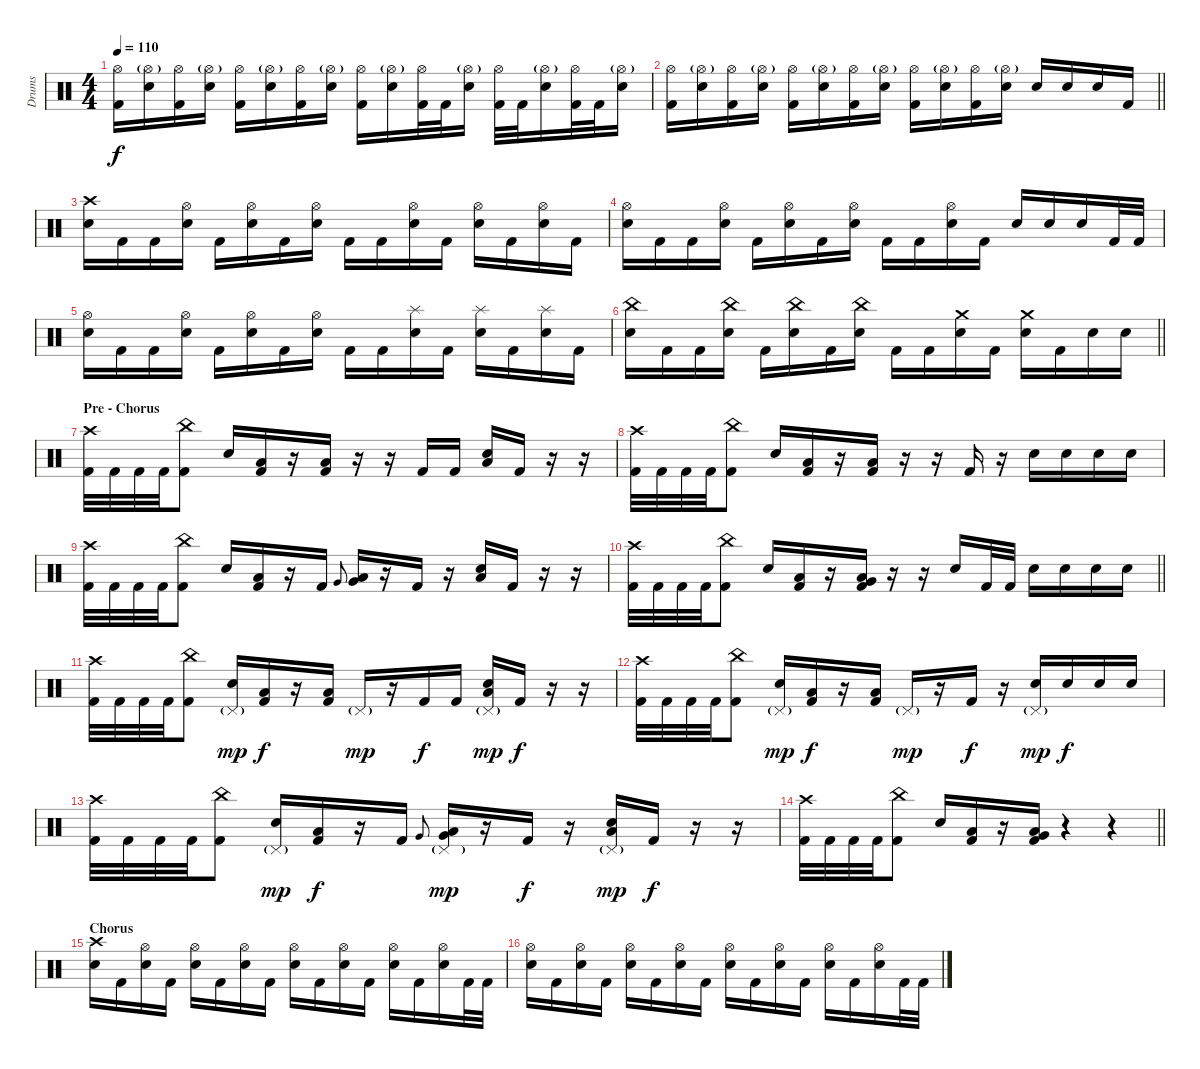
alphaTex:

\track ("Drums" "Drums") {instrument percussion}
\staff {score}
\articulation defaults
\ts (4 4)
\tempo 110
\clef neutral
\ks c
("Hi-Hat (open)" "Kick (hit) 2").16{dy f} ("Hi-Hat (open)"{g} "Electric Snare (hit)").16 ("Hi-Hat (open)" "Kick (hit) 2").16 ("Hi-Hat (open)"{g} "Electric Snare (hit)").16 ("Hi-Hat (open)" "Kick (hit) 2").16 ("Hi-Hat (open)"{g} "Electric Snare (hit)").16 ("Hi-Hat (open)" "Kick (hit) 2").16 ("Hi-Hat (open)"{g} "Electric Snare (hit)").16 ("Hi-Hat (open)" "Kick (hit) 2").16 ("Hi-Hat (open)"{g} "Electric Snare (hit)").16 ("Hi-Hat (open)" "Kick (hit) 2").32 "Kick (hit) 2".32 ("Hi-Hat (open)"{g} "Electric Snare (hit)").16 ("Hi-Hat (open)" "Kick (hit) 2").32 "Kick (hit) 2".32 ("Hi-Hat (open)"{g} "Electric Snare (hit)").16 ("Hi-Hat (open)" "Kick (hit) 2").32 "Kick (hit) 2".32 ("Hi-Hat (open)"{g} "Electric Snare (hit)").16 |
\barLineRight lightlight
("Hi-Hat (open)" "Kick (hit) 2").16 ("Hi-Hat (open)"{g} "Electric Snare (hit)").16 ("Hi-Hat (open)" "Kick (hit) 2").16 ("Hi-Hat (open)"{g} "Electric Snare (hit)").16 ("Hi-Hat (open)" "Kick (hit) 2").16 ("Hi-Hat (open)"{g} "Electric Snare (hit)").16 ("Hi-Hat (open)" "Kick (hit) 2").16 ("Hi-Hat (open)"{g} "Electric Snare (hit)").16 ("Hi-Hat (open)" "Kick (hit) 2").16 ("Hi-Hat (open)"{g} "Electric Snare (hit)").16 ("Hi-Hat (open)" "Kick (hit) 2").16 ("Hi-Hat (open)"{g} "Electric Snare (hit)").16 "Electric Snare (hit)".16 "Electric Snare (hit)".16 "Electric Snare (hit)".16 "Kick (hit) 2".16 |
("Crash high (hit)" "Electric Snare (hit)").16 "Kick (hit) 2".16 "Kick (hit) 2".16 ("Hi-Hat (open)" "Electric Snare (hit)").16 "Kick (hit) 2".16 ("Hi-Hat (open)" "Electric Snare (hit)").16 "Kick (hit) 2".16 ("Hi-Hat (open)" "Electric Snare (hit)").16 "Kick (hit) 2".16 "Kick (hit) 2".16 ("Hi-Hat (open)" "Electric Snare (hit)").16 "Kick (hit) 2".16 ("Hi-Hat (open)" "Electric Snare (hit)").16 "Kick (hit) 2".16 ("Hi-Hat (open)" "Electric Snare (hit)").16 "Kick (hit) 2".16 |
("Hi-Hat (open)" "Electric Snare (hit)").16 "Kick (hit) 2".16 "Kick (hit) 2".16 ("Hi-Hat (open)" "Electric Snare (hit)").16 "Kick (hit) 2".16 ("Hi-Hat (open)" "Electric Snare (hit)").16 "Kick (hit) 2".16 ("Hi-Hat (open)" "Electric Snare (hit)").16 "Kick (hit) 2".16 "Kick (hit) 2".16 ("Hi-Hat (open)" "Electric Snare (hit)").16 "Kick (hit) 2".16 "Electric Snare (hit)".16 "Electric Snare (hit)".16 "Electric Snare (hit)".16 "Kick (hit) 2".32 "Kick (hit) 2".32 |
("Hi-Hat (open)" "Electric Snare (hit)").16 "Kick (hit) 2".16 "Kick (hit) 2".16 ("Hi-Hat (open)" "Electric Snare (hit)").16 "Kick (hit) 2".16 ("Hi-Hat (open)" "Electric Snare (hit)").16 "Kick (hit) 2".16 ("Hi-Hat (open)" "Electric Snare (hit)").16 "Kick (hit) 2".16 "Kick (hit) 2".16 ("Splash (hit)" "Electric Snare (hit)").16 "Kick (hit) 2".16 ("Splash (hit)" "Electric Snare (hit)").16 "Kick (hit) 2".16 ("Splash (hit)" "Electric Snare (hit)").16 "Kick (hit) 2".16 |
\barLineRight lightlight
("China (hit)" "Electric Snare (hit)").16 "Kick (hit) 2".16 "Kick (hit) 2".16 ("China (hit)" "Electric Snare (hit)").16 "Kick (hit) 2".16 ("China (hit)" "Electric Snare (hit)").16 "Kick (hit) 2".16 ("China (hit)" "Electric Snare (hit)").16 "Kick (hit) 2".16 "Kick (hit) 2".16 ("Crash medium (hit)" "Electric Snare (hit)").16 "Kick (hit) 2".16 ("Crash medium (hit)" "Electric Snare (hit)").16 "Kick (hit) 2".16 "Electric Snare (hit)".16 "Electric Snare (hit)".16 |
\section ("" "Pre - Chorus")
("Crash high (hit)" "Kick (hit) 2").32 "Kick (hit) 2".32 "Kick (hit) 2".32 "Kick (hit) 2".32 ("China (hit)" "Kick (hit) 2").8 "Electric Snare (hit)".16 ("Low Floor Tom (hit)" "Kick (hit) 2").16 r.16 ("Low Floor Tom (hit)" "Kick (hit) 2").16 r.16 r.16 "Kick (hit) 2".16 "Kick (hit) 2".16 ("Low Floor Tom (hit)" "Electric Snare (hit)").16 "Kick (hit) 2".16 r.16 r.16 |
("Crash high (hit)" "Kick (hit) 2").32 "Kick (hit) 2".32 "Kick (hit) 2".32 "Kick (hit) 2".32 ("China (hit)" "Kick (hit) 2").8 "Electric Snare (hit)".16 ("Low Floor Tom (hit)" "Kick (hit) 2").16 r.16 ("Low Floor Tom (hit)" "Kick (hit) 2").16 r.16 r.16 "Kick (hit) 2".16 r.16 "Electric Snare (hit)".16 "Electric Snare (hit)".16 "Electric Snare (hit)".16 "Electric Snare (hit)".16 |
("Crash high (hit)" "Kick (hit) 2").32 "Kick (hit) 2".32 "Kick (hit) 2".32 "Kick (hit) 2".32 ("China (hit)" "Kick (hit) 2").8 "Electric Snare (hit)".16 ("Low Floor Tom (hit)" "Kick (hit) 2").16 r.16 "Kick (hit) 2".16 "Very Low Tom (hit)".8{gr onbeat} ("Very Low Tom (hit)" "Low Floor Tom (hit)").16 r.16 "Kick (hit) 2".16 r.16 ("Low Floor Tom (hit)" "Electric Snare (hit)").16 "Kick (hit) 2".16 r.16 r.16 |
\barLineRight lightlight
("Crash high (hit)" "Kick (hit) 2").32 "Kick (hit) 2".32 "Kick (hit) 2".32 "Kick (hit) 2".32 ("China (hit)" "Kick (hit) 2").8 "Electric Snare (hit)".16 ("Low Floor Tom (hit)" "Kick (hit) 2").16 r.16 ("Low Floor Tom (hit)" "Very Low Tom (hit)" "Kick (hit) 2").16 r.16 r.16 "Electric Snare (hit)".16 "Kick (hit) 2".32 "Kick (hit) 2".32 "Electric Snare (hit)".16 "Electric Snare (hit)".16 "Electric Snare (hit)".16 "Electric Snare (hit)".16 |
("Crash high (hit)" "Kick (hit) 2").32 "Kick (hit) 2".32 "Kick (hit) 2".32 "Kick (hit) 2".32 ("China (hit)" "Kick (hit) 2").8 ("Electric Snare (hit)" "Pedal Hi-Hat (hit)"{g}).16{dy mp} ("Low Floor Tom (hit)" "Kick (hit) 2").16{dy f} r.16 ("Low Floor Tom (hit)" "Kick (hit) 2").16 "Pedal Hi-Hat (hit)"{g}.16{dy mp} r.16 "Kick (hit) 2".16{dy f} "Kick (hit) 2".16 ("Low Floor Tom (hit)" "Electric Snare (hit)" "Pedal Hi-Hat (hit)"{g}).16{dy mp} "Kick (hit) 2".16{dy f} r.16 r.16 |
("Crash high (hit)" "Kick (hit) 2").32 "Kick (hit) 2".32 "Kick (hit) 2".32 "Kick (hit) 2".32 ("China (hit)" "Kick (hit) 2").8 ("Electric Snare (hit)" "Pedal Hi-Hat (hit)"{g}).16{dy mp} ("Low Floor Tom (hit)" "Kick (hit) 2").16{dy f} r.16 ("Low Floor Tom (hit)" "Kick (hit) 2").16 "Pedal Hi-Hat (hit)"{g}.16{dy mp} r.16 "Kick (hit) 2".16{dy f} r.16 ("Electric Snare (hit)" "Pedal Hi-Hat (hit)"{g}).16{dy mp} "Electric Snare (hit)".16{dy f} "Electric Snare (hit)".16 "Electric Snare (hit)".16 |
("Crash high (hit)" "Kick (hit) 2").32 "Kick (hit) 2".32 "Kick (hit) 2".32 "Kick (hit) 2".32 ("China (hit)" "Kick (hit) 2").8 ("Electric Snare (hit)" "Pedal Hi-Hat (hit)"{g}).16{dy mp} ("Low Floor Tom (hit)" "Kick (hit) 2").16{dy f} r.16 "Kick (hit) 2".16 "Very Low Tom (hit)".8{gr onbeat} ("Very Low Tom (hit)" "Low Floor Tom (hit)" "Pedal Hi-Hat (hit)"{g}).16{dy mp} r.16 "Kick (hit) 2".16{dy f} r.16 ("Low Floor Tom (hit)" "Electric Snare (hit)" "Pedal Hi-Hat (hit)"{g}).16{dy mp} "Kick (hit) 2".16{dy f} r.16 r.16 |
\barLineRight lightlight
("Crash high (hit)" "Kick (hit) 2").32 "Kick (hit) 2".32 "Kick (hit) 2".32 "Kick (hit) 2".32 ("China (hit)" "Kick (hit) 2").8 "Electric Snare (hit)".16 ("Low Floor Tom (hit)" "Kick (hit) 2").16 r.16 ("Low Floor Tom (hit)" "Very Low Tom (hit)" "Kick (hit) 2").16 r.4 r.4 |
\section ("" "Chorus")
("Crash high (hit)" "Electric Snare (hit)").16 "Kick (hit) 2".16 ("Hi-Hat (open)" "Electric Snare (hit)").16 "Kick (hit) 2".16 ("Hi-Hat (open)" "Electric Snare (hit)").16 "Kick (hit) 2".16 ("Hi-Hat (open)" "Electric Snare (hit)").16 "Kick (hit) 2".16 ("Hi-Hat (open)" "Electric Snare (hit)").16 "Kick (hit) 2".16 ("Hi-Hat (open)" "Electric Snare (hit)").16 "Kick (hit) 2".16 ("Hi-Hat (open)" "Electric Snare (hit)").16 "Kick (hit) 2".16 ("Hi-Hat (open)" "Electric Snare (hit)").16 "Kick (hit) 2".32 "Kick (hit) 2".32 |
("Hi-Hat (open)" "Electric Snare (hit)").16 "Kick (hit) 2".16 ("Hi-Hat (open)" "Electric Snare (hit)").16 "Kick (hit) 2".16 ("Hi-Hat (open)" "Electric Snare (hit)").16 "Kick (hit) 2".16 ("Hi-Hat (open)" "Electric Snare (hit)").16 "Kick (hit) 2".16 ("Hi-Hat (open)" "Electric Snare (hit)").16 "Kick (hit) 2".16 ("Hi-Hat (open)" "Electric Snare (hit)").16 "Kick (hit) 2".16 ("Hi-Hat (open)" "Electric Snare (hit)").16 "Kick (hit) 2".16 ("Hi-Hat (open)" "Electric Snare (hit)").16 "Kick (hit) 2".32 "Kick (hit) 2".32
